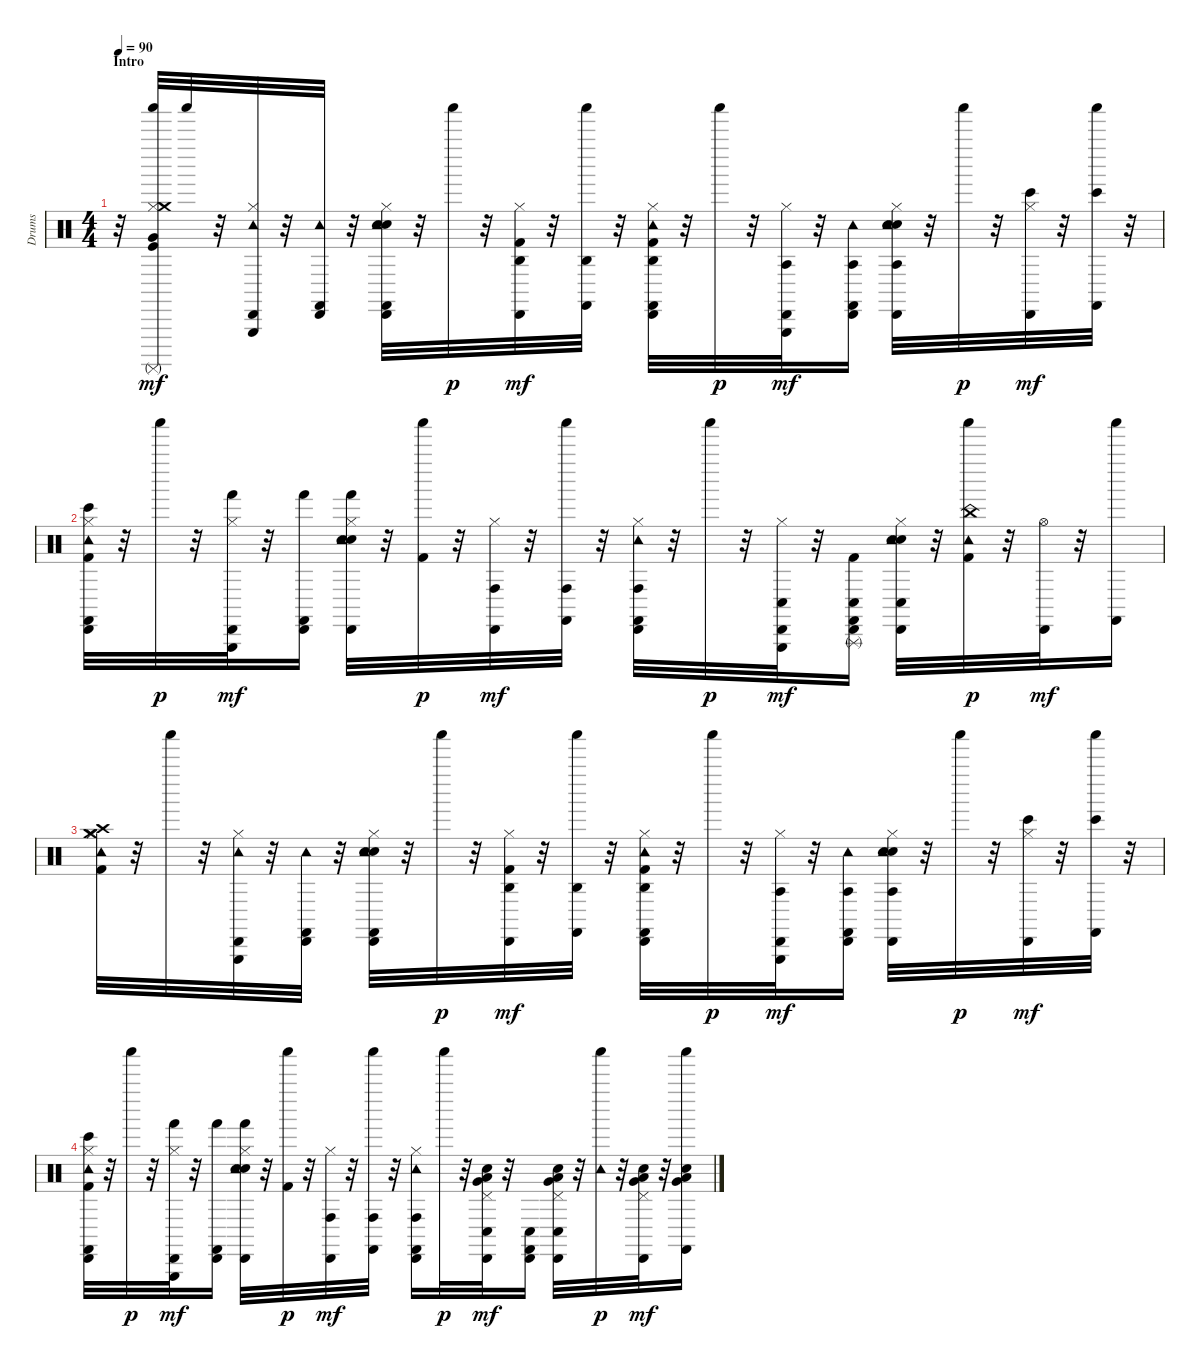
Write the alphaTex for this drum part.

\track ("Drums" "Drums") {instrument percussion}
\staff {score}
\articulation defaults
\ts (4 4)
\section ("" "Intro")
\tempo 90
\clef neutral
\ks c
r.32{dy mf} ("Surdo (mute)" "Shaker (hit)" "Hi-Hat (closed)" "Kick (hit)" "Very Low Tom (hit)" "Crash medium (hit)").32 "Shaker (hit)".32 r.32 ("Hi-Hat (closed)" "Tambourine (hit)" "Cabasa (hit)" "Triangle (hit)").32 r.32 ("Tambourine (hit)" "Cabasa (hit)" "Castanets (hit)").32 r.32 ("Electric Snare (hit)" "Hi-Hat (closed)" "Snare (hit) 2" "Tambourine (hit)" "Cabasa (hit)" "Castanets (hit)").32 r.32 "Shaker (hit)".32{dy p} r.32 ("Hi-Hat (closed)" "Kick (hit) 2" "Agogo high (hit)" "Cabasa (hit)").32{dy mf} r.32 ("Agogo high (hit)" "Shaker (hit)" "Castanets (hit)").32 r.32 ("Hi-Hat (closed)" "Kick (hit) 2" "Agogo high (hit)" "Cabasa (hit)" "Tambourine (hit)" "Castanets (hit)").32 r.32 "Shaker (hit)".32{dy p} r.32 ("Hi-Hat (closed)" "Agogo tow (hit)" "Cabasa (hit)" "Triangle (hit)").32{dy mf} r.32 ("Agogo tow (hit)" "Cabasa (hit)" "Tambourine (hit)" "Castanets (hit)").16 ("Electric Snare (hit)" "Hi-Hat (closed)" "Snare (hit) 2" "Agogo tow (hit)" "Tambourine (hit)" "Cabasa (hit)").32 r.32 "Shaker (hit)".32{dy p} r.32 ("Hi-Hat (closed)" "Bongo High (hit)" "Cabasa (hit)").32{dy mf} r.32 ("Bongo High (hit)" "Shaker (hit)" "Castanets (hit)").32 r.32 |
("Hi-Hat (closed)" "Kick (hit) 2" "Bongo High (hit)" "Cabasa (hit)" "Tambourine (hit)" "Castanets (hit)").32 r.32 "Shaker (hit)".32{dy p} r.32 ("Hi-Hat (closed)" "Hand (hit)" "Cabasa (hit)" "Triangle (hit)").32{dy mf} r.32 ("Hand (hit)" "Cabasa (hit)" "Castanets (hit)").16 ("Electric Snare (hit)" "Hi-Hat (closed)" "Snare (hit) 2" "Hand (hit)" "Cabasa (hit)" "Tambourine (hit)").32 r.32 ("Kick (hit) 2" "Shaker (hit)").32{dy p} r.32 ("Hi-Hat (closed)" "Conga high (hit)" "Cabasa (hit)").32{dy mf} r.32 ("Conga high (hit)" "Shaker (hit)" "Castanets (hit)").32 r.32 ("Hi-Hat (closed)" "Conga high (hit)" "Cabasa (hit)" "Tambourine (hit)" "Castanets (hit)").32 r.32 "Shaker (hit)".32{dy p} r.32 ("Hi-Hat (closed)" "Conga low (hit)" "Cabasa (hit)" "Triangle (hit)").32{dy mf} r.32 ("Kick (hit) 2" "Conga low (hit)" "Cabasa (hit)" "Castanets (hit)" "Triangle (rnute)").16 ("Electric Snare (hit)" "Hi-Hat (closed)" "Snare (hit) 2" "Conga low (hit)" "Cabasa (hit)" "Tambourine (hit)").32 r.32 ("Kick (hit) 2" "China (hit)" "Tambourine (hit)" "Shaker (hit)").32{dy p} r.32 ("Hi-Hat (open)" "Cabasa (hit)").32{dy mf} r.32 ("Shaker (hit)" "Castanets (hit)").16 |
("Hi-Hat (closed)" "Kick (hit) 2" "Tambourine (hit)" "Crash high (hit)" "Crash medium (hit)" "Hi-Hat (closed)").32 r.32 "Shaker (hit)".32 r.32 ("Hi-Hat (closed)" "Tambourine (hit)" "Cabasa (hit)" "Triangle (hit)").32 r.32 ("Tambourine (hit)" "Cabasa (hit)" "Castanets (hit)").32 r.32 ("Electric Snare (hit)" "Hi-Hat (closed)" "Snare (hit) 2" "Tambourine (hit)" "Cabasa (hit)" "Castanets (hit)").32 r.32 "Shaker (hit)".32{dy p} r.32 ("Hi-Hat (closed)" "Kick (hit) 2" "Agogo high (hit)" "Cabasa (hit)").32{dy mf} r.32 ("Agogo high (hit)" "Shaker (hit)" "Castanets (hit)").32 r.32 ("Hi-Hat (closed)" "Kick (hit) 2" "Agogo high (hit)" "Cabasa (hit)" "Tambourine (hit)" "Castanets (hit)").32 r.32 "Shaker (hit)".32{dy p} r.32 ("Hi-Hat (closed)" "Agogo tow (hit)" "Cabasa (hit)" "Triangle (hit)").32{dy mf} r.32 ("Agogo tow (hit)" "Cabasa (hit)" "Tambourine (hit)" "Castanets (hit)").16 ("Electric Snare (hit)" "Hi-Hat (closed)" "Snare (hit) 2" "Agogo tow (hit)" "Tambourine (hit)" "Cabasa (hit)").32 r.32 "Shaker (hit)".32{dy p} r.32 ("Hi-Hat (closed)" "Bongo High (hit)" "Cabasa (hit)").32{dy mf} r.32 ("Bongo High (hit)" "Shaker (hit)" "Castanets (hit)").32 r.32 |
("Hi-Hat (closed)" "Kick (hit) 2" "Bongo High (hit)" "Cabasa (hit)" "Tambourine (hit)" "Castanets (hit)").32 r.32 "Shaker (hit)".32{dy p} r.32 ("Hi-Hat (closed)" "Hand (hit)" "Cabasa (hit)" "Triangle (hit)").32{dy mf} r.32 ("Hand (hit)" "Cabasa (hit)" "Castanets (hit)").16 ("Electric Snare (hit)" "Hi-Hat (closed)" "Snare (hit) 2" "Hand (hit)" "Cabasa (hit)" "Tambourine (hit)").32 r.32 ("Kick (hit) 2" "Shaker (hit)").32{dy p} r.32 ("Hi-Hat (closed)" "Conga high (hit)" "Cabasa (hit)").32{dy mf} r.32 ("Conga high (hit)" "Shaker (hit)" "Castanets (hit)").32 r.32 ("Hi-Hat (closed)" "Conga high (hit)" "Cabasa (hit)" "Tambourine (hit)" "Castanets (hit)").16 "Shaker (hit)".32{dy p} r.32 ("Low Floor Tom (hit)" "Very Low Tom (hit)" "Pedal Hi-Hat (hit)" "Snare (hit) 2" "Conga low (hit)" "Cabasa (hit)").32{dy mf} r.32 ("Conga low (hit)" "Cabasa (hit)" "Castanets (hit)").16 ("Low Floor Tom (hit)" "Very Low Tom (hit)" "Pedal Hi-Hat (hit)" "Snare (hit) 2" "Conga low (hit)" "Cabasa (hit)").32 r.32 ("Tambourine (hit)" "Shaker (hit)").32{dy p} r.32 ("Very Low Tom (hit)" "Low Floor Tom (hit)" "Pedal Hi-Hat (hit)" "Snare (hit) 2" "Cabasa (hit)").32{dy mf} r.32 ("Very Low Tom (hit)" "Low Floor Tom (hit)" "Snare (hit) 2" "Shaker (hit)" "Castanets (hit)").16
